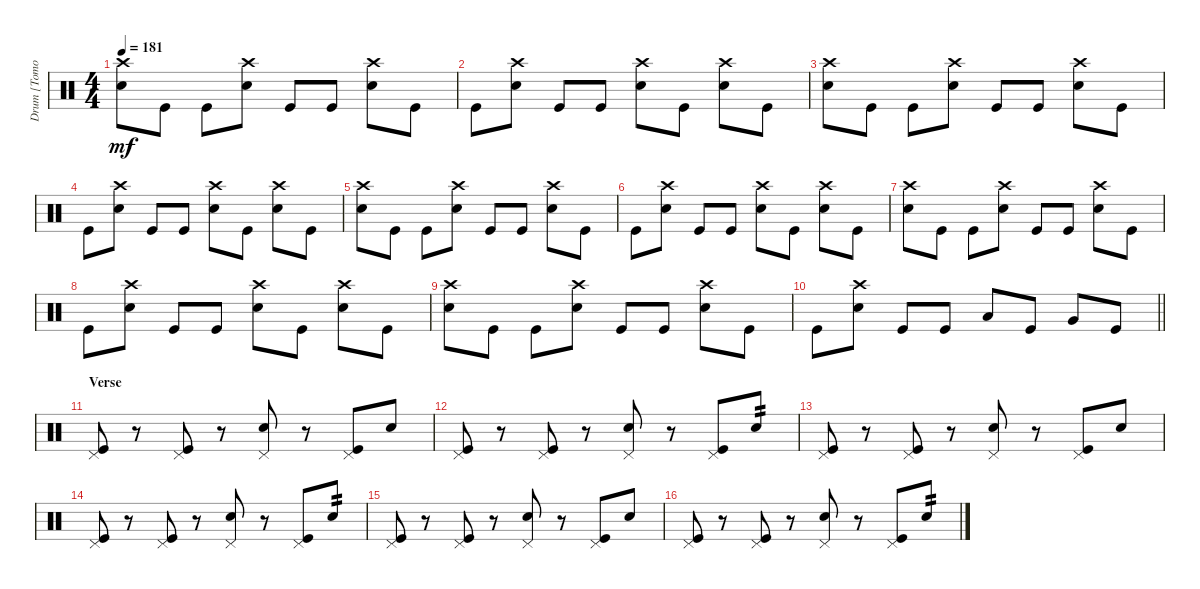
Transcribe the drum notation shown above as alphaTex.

\track ("Drum [Tomoya]" "Drum [Tomo") {instrument percussion}
\staff {score}
\articulation defaults
\ts (4 4)
\tempo 181
\clef neutral
\ks c
("Snare (hit) 2" "Crash high (hit)").8{dy mf} "Kick (hit)".8 "Kick (hit)".8 ("Snare (hit) 2" "Crash high (hit)").8 "Kick (hit)".8 "Kick (hit)".8 ("Snare (hit) 2" "Crash high (hit)").8 "Kick (hit)".8 |
"Kick (hit)".8 ("Snare (hit) 2" "Crash high (hit)").8 "Kick (hit)".8 "Kick (hit)".8 ("Snare (hit) 2" "Crash high (hit)").8 "Kick (hit)".8 ("Snare (hit) 2" "Crash high (hit)").8 "Kick (hit)".8 |
("Snare (hit) 2" "Crash high (hit)").8 "Kick (hit)".8 "Kick (hit)".8 ("Snare (hit) 2" "Crash high (hit)").8 "Kick (hit)".8 "Kick (hit)".8 ("Snare (hit) 2" "Crash high (hit)").8 "Kick (hit)".8 |
"Kick (hit)".8 ("Snare (hit) 2" "Crash high (hit)").8 "Kick (hit)".8 "Kick (hit)".8 ("Snare (hit) 2" "Crash high (hit)").8 "Kick (hit)".8 ("Snare (hit) 2" "Crash high (hit)").8 "Kick (hit)".8 |
("Snare (hit) 2" "Crash high (hit)").8 "Kick (hit)".8 "Kick (hit)".8 ("Snare (hit) 2" "Crash high (hit)").8 "Kick (hit)".8 "Kick (hit)".8 ("Snare (hit) 2" "Crash high (hit)").8 "Kick (hit)".8 |
"Kick (hit)".8 ("Snare (hit) 2" "Crash high (hit)").8 "Kick (hit)".8 "Kick (hit)".8 ("Snare (hit) 2" "Crash high (hit)").8 "Kick (hit)".8 ("Snare (hit) 2" "Crash high (hit)").8 "Kick (hit)".8 |
("Snare (hit) 2" "Crash high (hit)").8 "Kick (hit)".8 "Kick (hit)".8 ("Snare (hit) 2" "Crash high (hit)").8 "Kick (hit)".8 "Kick (hit)".8 ("Snare (hit) 2" "Crash high (hit)").8 "Kick (hit)".8 |
"Kick (hit)".8 ("Snare (hit) 2" "Crash high (hit)").8 "Kick (hit)".8 "Kick (hit)".8 ("Snare (hit) 2" "Crash high (hit)").8 "Kick (hit)".8 ("Snare (hit) 2" "Crash high (hit)").8 "Kick (hit)".8 |
("Snare (hit) 2" "Crash high (hit)").8 "Kick (hit)".8 "Kick (hit)".8 ("Snare (hit) 2" "Crash high (hit)").8 "Kick (hit)".8 "Kick (hit)".8 ("Snare (hit) 2" "Crash high (hit)").8 "Kick (hit)".8 |
\barLineRight lightlight "Kick (hit)".8
("Snare (hit) 2" "Crash high (hit)").8 "Kick (hit)".8 "Kick (hit)".8 "Low Tom (hit)".8 "Kick (hit)".8 "Very Low Tom (hit)".8 "Kick (hit)".8 |
\section ("" "Verse")
("Kick (hit)" "Pedal Hi-Hat (hit)").8 r.8 ("Kick (hit)" "Pedal Hi-Hat (hit)").8 r.8 ("Pedal Hi-Hat (hit)" "Snare (hit) 2").8 r.8 ("Kick (hit)" "Pedal Hi-Hat (hit)").8 "Snare (hit) 2".8 |
("Kick (hit)" "Pedal Hi-Hat (hit)").8 r.8 ("Kick (hit)" "Pedal Hi-Hat (hit)").8 r.8 ("Pedal Hi-Hat (hit)" "Snare (hit) 2").8 r.8 ("Kick (hit)" "Pedal Hi-Hat (hit)").8 "Snare (hit) 2".8{tp 2} |
("Kick (hit)" "Pedal Hi-Hat (hit)").8 r.8 ("Kick (hit)" "Pedal Hi-Hat (hit)").8 r.8 ("Pedal Hi-Hat (hit)" "Snare (hit) 2").8 r.8 ("Kick (hit)" "Pedal Hi-Hat (hit)").8 "Snare (hit) 2".8 |
("Kick (hit)" "Pedal Hi-Hat (hit)").8 r.8 ("Kick (hit)" "Pedal Hi-Hat (hit)").8 r.8 ("Pedal Hi-Hat (hit)" "Snare (hit) 2").8 r.8 ("Kick (hit)" "Pedal Hi-Hat (hit)").8 "Snare (hit) 2".8{tp 2} |
("Kick (hit)" "Pedal Hi-Hat (hit)").8 r.8 ("Kick (hit)" "Pedal Hi-Hat (hit)").8 r.8 ("Pedal Hi-Hat (hit)" "Snare (hit) 2").8 r.8 ("Kick (hit)" "Pedal Hi-Hat (hit)").8 "Snare (hit) 2".8 |
("Kick (hit)" "Pedal Hi-Hat (hit)").8 r.8 ("Kick (hit)" "Pedal Hi-Hat (hit)").8 r.8 ("Pedal Hi-Hat (hit)" "Snare (hit) 2").8 r.8 ("Kick (hit)" "Pedal Hi-Hat (hit)").8 "Snare (hit) 2".8{tp 2}
